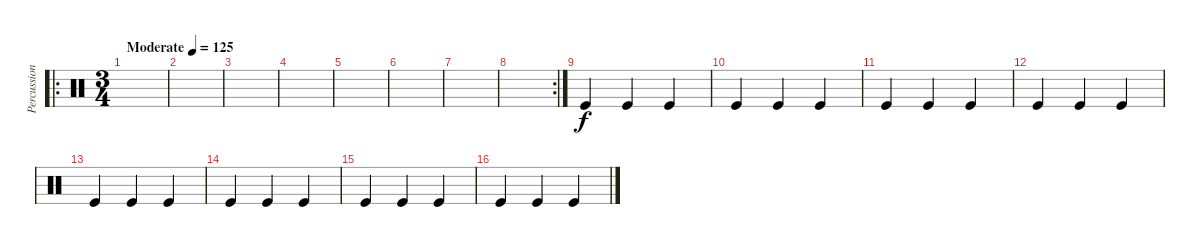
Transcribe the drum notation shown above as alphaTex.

\track ("Percussion" "Percussion") {instrument percussion}
\staff {score}
\articulation defaults
\ro
\ts (3 4)
\tempo (125 "Moderate")
\clef neutral
\ks c
|
|
|
|
|
|
|
\rc 2
|
"Kick (hit)".4 "Kick (hit)".4 "Kick (hit)".4 |
"Kick (hit)".4 "Kick (hit)".4 "Kick (hit)".4 |
"Kick (hit)".4 "Kick (hit)".4 "Kick (hit)".4 |
"Kick (hit)".4 "Kick (hit)".4 "Kick (hit)".4 |
"Kick (hit)".4 "Kick (hit)".4 "Kick (hit)".4 |
"Kick (hit)".4 "Kick (hit)".4 "Kick (hit)".4 |
"Kick (hit)".4 "Kick (hit)".4 "Kick (hit)".4 |
"Kick (hit)".4 "Kick (hit)".4 "Kick (hit)".4
